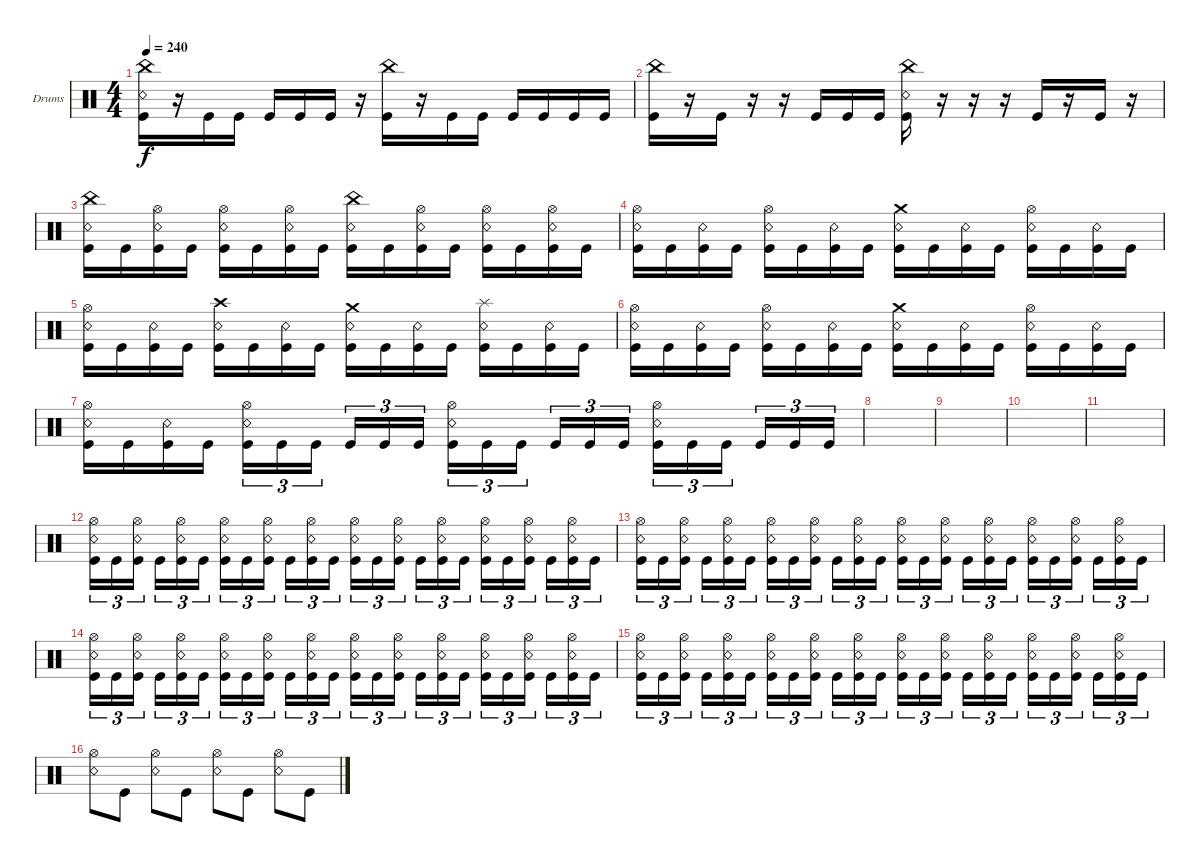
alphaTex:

\bracketExtendMode groupsimilarinstruments
\firstSystemTrackNameOrientation horizontal
\otherSystemsTrackNameOrientation horizontal
\track ("Drumkit" "Drums") {instrument percussion}
\staff {score}
\articulation defaults
\ts (4 4)
\tempo 240
\clef neutral
\ks c
("China (hit)" "Kick (hit)" "Snare (rim shot)").16{dy f} r.16 "Kick (hit)".16 "Kick (hit)".16 "Kick (hit)".16 "Kick (hit)".16 "Kick (hit)".16 r.16 ("China (hit)" "Kick (hit)").16 r.16 "Kick (hit)".16 "Kick (hit)".16 "Kick (hit)".16 "Kick (hit)".16 "Kick (hit)".16 "Kick (hit)".16 |
("China (hit)" "Kick (hit)").16 r.16 "Kick (hit)".16 r.16 r.16 "Kick (hit)".16 "Kick (hit)".16 "Kick (hit)".16 ("China (hit)" "Kick (hit)" "Snare (rim shot)").16 r.16 r.16 r.16 "Kick (hit)".16 r.16 "Kick (hit)".16 r.16 |
("China (hit)" "Kick (hit)" "Snare (rim shot)").16 "Kick (hit)".16 ("Kick (hit)" "Snare (rim shot)" "Hi-Hat (open)").16 "Kick (hit)".16 ("Kick (hit)" "Snare (rim shot)" "Hi-Hat (open)").16 "Kick (hit)".16 ("Kick (hit)" "Snare (rim shot)" "Hi-Hat (open)").16 "Kick (hit)".16 ("China (hit)" "Kick (hit)" "Snare (rim shot)").16 "Kick (hit)".16 ("Kick (hit)" "Snare (rim shot)" "Hi-Hat (open)").16 "Kick (hit)".16 ("Kick (hit)" "Snare (rim shot)" "Hi-Hat (open)").16 "Kick (hit)".16 ("Kick (hit)" "Snare (rim shot)" "Hi-Hat (open)").16 "Kick (hit)".16 |
("Snare (rim shot)" "Hi-Hat (open)" "Kick (hit)").16 "Kick (hit)".16 ("Snare (rim shot)" "Kick (hit)").16 "Kick (hit)".16 ("Snare (rim shot)" "Hi-Hat (open)" "Kick (hit)").16 "Kick (hit)".16 ("Snare (rim shot)" "Kick (hit)").16 "Kick (hit)".16 ("Snare (rim shot)" "Crash medium (hit)" "Kick (hit)").16 "Kick (hit)".16 ("Snare (rim shot)" "Kick (hit)").16 "Kick (hit)".16 ("Snare (rim shot)" "Hi-Hat (open)" "Kick (hit)").16 "Kick (hit)".16 ("Snare (rim shot)" "Kick (hit)").16 "Kick (hit)".16 |
("Snare (rim shot)" "Hi-Hat (open)" "Kick (hit)").16 "Kick (hit)".16 ("Snare (rim shot)" "Kick (hit)").16 "Kick (hit)".16 ("Snare (rim shot)" "Kick (hit)" "Crash high (hit)").16 "Kick (hit)".16 ("Snare (rim shot)" "Kick (hit)").16 "Kick (hit)".16 ("Snare (rim shot)" "Crash medium (hit)" "Kick (hit)").16 "Kick (hit)".16 ("Snare (rim shot)" "Kick (hit)").16 "Kick (hit)".16 ("Snare (rim shot)" "Kick (hit)" "Splash (hit)").16 "Kick (hit)".16 ("Snare (rim shot)" "Kick (hit)").16 "Kick (hit)".16 |
("Snare (rim shot)" "Hi-Hat (open)" "Kick (hit)").16 "Kick (hit)".16 ("Snare (rim shot)" "Kick (hit)").16 "Kick (hit)".16 ("Snare (rim shot)" "Hi-Hat (open)" "Kick (hit)").16 "Kick (hit)".16 ("Snare (rim shot)" "Kick (hit)").16 "Kick (hit)".16 ("Snare (rim shot)" "Crash medium (hit)" "Kick (hit)").16 "Kick (hit)".16 ("Snare (rim shot)" "Kick (hit)").16 "Kick (hit)".16 ("Snare (rim shot)" "Hi-Hat (open)" "Kick (hit)").16 "Kick (hit)".16 ("Snare (rim shot)" "Kick (hit)").16 "Kick (hit)".16 |
("Snare (rim shot)" "Hi-Hat (open)" "Kick (hit)").16 "Kick (hit)".16 ("Snare (rim shot)" "Kick (hit)").16 "Kick (hit)".16 ("Kick (hit)" "Hi-Hat (open)" "Snare (rim shot)").16{tu (3 2)} "Kick (hit)".16{tu (3 2)} "Kick (hit)".16{tu (3 2)} "Kick (hit)".16{tu (3 2)} "Kick (hit)".16{tu (3 2)} "Kick (hit)".16{tu (3 2)} ("Kick (hit)" "Hi-Hat (open)" "Snare (rim shot)").16{tu (3 2)} "Kick (hit)".16{tu (3 2)} "Kick (hit)".16{tu (3 2)} "Kick (hit)".16{tu (3 2)} "Kick (hit)".16{tu (3 2)} "Kick (hit)".16{tu (3 2)} ("Kick (hit)" "Hi-Hat (open)" "Snare (rim shot)").16{tu (3 2)} "Kick (hit)".16{tu (3 2)} "Kick (hit)".16{tu (3 2)} "Kick (hit)".16{tu (3 2)} "Kick (hit)".16{tu (3 2)} "Kick (hit)".16{tu (3 2)} |
|
|
|
|
("Snare (rim shot)" "Hi-Hat (open)" "Kick (hit)").16{tu (3 2)} "Kick (hit)".16{tu (3 2)} ("Snare (rim shot)" "Hi-Hat (open)" "Kick (hit)").16{tu (3 2)} "Kick (hit)".16{tu (3 2)} ("Snare (rim shot)" "Hi-Hat (open)" "Kick (hit)").16{tu (3 2)} "Kick (hit)".16{tu (3 2)} ("Snare (rim shot)" "Hi-Hat (open)" "Kick (hit)").16{tu (3 2)} "Kick (hit)".16{tu (3 2)} ("Snare (rim shot)" "Hi-Hat (open)" "Kick (hit)").16{tu (3 2)} "Kick (hit)".16{tu (3 2)} ("Snare (rim shot)" "Hi-Hat (open)" "Kick (hit)").16{tu (3 2)} "Kick (hit)".16{tu (3 2)} ("Snare (rim shot)" "Hi-Hat (open)" "Kick (hit)").16{tu (3 2)} "Kick (hit)".16{tu (3 2)} ("Snare (rim shot)" "Hi-Hat (open)" "Kick (hit)").16{tu (3 2)} "Kick (hit)".16{tu (3 2)} ("Snare (rim shot)" "Hi-Hat (open)" "Kick (hit)").16{tu (3 2)} "Kick (hit)".16{tu (3 2)} ("Snare (rim shot)" "Hi-Hat (open)" "Kick (hit)").16{tu (3 2)} "Kick (hit)".16{tu (3 2)} ("Snare (rim shot)" "Hi-Hat (open)" "Kick (hit)").16{tu (3 2)} "Kick (hit)".16{tu (3 2)} ("Snare (rim shot)" "Hi-Hat (open)" "Kick (hit)").16{tu (3 2)} "Kick (hit)".16{tu (3 2)} |
("Snare (rim shot)" "Hi-Hat (open)" "Kick (hit)").16{tu (3 2)} "Kick (hit)".16{tu (3 2)} ("Snare (rim shot)" "Hi-Hat (open)" "Kick (hit)").16{tu (3 2)} "Kick (hit)".16{tu (3 2)} ("Snare (rim shot)" "Hi-Hat (open)" "Kick (hit)").16{tu (3 2)} "Kick (hit)".16{tu (3 2)} ("Snare (rim shot)" "Hi-Hat (open)" "Kick (hit)").16{tu (3 2)} "Kick (hit)".16{tu (3 2)} ("Snare (rim shot)" "Hi-Hat (open)" "Kick (hit)").16{tu (3 2)} "Kick (hit)".16{tu (3 2)} ("Snare (rim shot)" "Hi-Hat (open)" "Kick (hit)").16{tu (3 2)} "Kick (hit)".16{tu (3 2)} ("Snare (rim shot)" "Hi-Hat (open)" "Kick (hit)").16{tu (3 2)} "Kick (hit)".16{tu (3 2)} ("Snare (rim shot)" "Hi-Hat (open)" "Kick (hit)").16{tu (3 2)} "Kick (hit)".16{tu (3 2)} ("Snare (rim shot)" "Hi-Hat (open)" "Kick (hit)").16{tu (3 2)} "Kick (hit)".16{tu (3 2)} ("Snare (rim shot)" "Hi-Hat (open)" "Kick (hit)").16{tu (3 2)} "Kick (hit)".16{tu (3 2)} ("Snare (rim shot)" "Hi-Hat (open)" "Kick (hit)").16{tu (3 2)} "Kick (hit)".16{tu (3 2)} ("Snare (rim shot)" "Hi-Hat (open)" "Kick (hit)").16{tu (3 2)} "Kick (hit)".16{tu (3 2)} |
("Snare (rim shot)" "Hi-Hat (open)" "Kick (hit)").16{tu (3 2)} "Kick (hit)".16{tu (3 2)} ("Snare (rim shot)" "Hi-Hat (open)" "Kick (hit)").16{tu (3 2)} "Kick (hit)".16{tu (3 2)} ("Snare (rim shot)" "Hi-Hat (open)" "Kick (hit)").16{tu (3 2)} "Kick (hit)".16{tu (3 2)} ("Snare (rim shot)" "Hi-Hat (open)" "Kick (hit)").16{tu (3 2)} "Kick (hit)".16{tu (3 2)} ("Snare (rim shot)" "Hi-Hat (open)" "Kick (hit)").16{tu (3 2)} "Kick (hit)".16{tu (3 2)} ("Snare (rim shot)" "Hi-Hat (open)" "Kick (hit)").16{tu (3 2)} "Kick (hit)".16{tu (3 2)} ("Snare (rim shot)" "Hi-Hat (open)" "Kick (hit)").16{tu (3 2)} "Kick (hit)".16{tu (3 2)} ("Snare (rim shot)" "Hi-Hat (open)" "Kick (hit)").16{tu (3 2)} "Kick (hit)".16{tu (3 2)} ("Snare (rim shot)" "Hi-Hat (open)" "Kick (hit)").16{tu (3 2)} "Kick (hit)".16{tu (3 2)} ("Snare (rim shot)" "Hi-Hat (open)" "Kick (hit)").16{tu (3 2)} "Kick (hit)".16{tu (3 2)} ("Snare (rim shot)" "Hi-Hat (open)" "Kick (hit)").16{tu (3 2)} "Kick (hit)".16{tu (3 2)} ("Snare (rim shot)" "Hi-Hat (open)" "Kick (hit)").16{tu (3 2)} "Kick (hit)".16{tu (3 2)} |
("Snare (rim shot)" "Hi-Hat (open)" "Kick (hit)").16{tu (3 2)} "Kick (hit)".16{tu (3 2)} ("Snare (rim shot)" "Hi-Hat (open)" "Kick (hit)").16{tu (3 2)} "Kick (hit)".16{tu (3 2)} ("Snare (rim shot)" "Hi-Hat (open)" "Kick (hit)").16{tu (3 2)} "Kick (hit)".16{tu (3 2)} ("Snare (rim shot)" "Hi-Hat (open)" "Kick (hit)").16{tu (3 2)} "Kick (hit)".16{tu (3 2)} ("Snare (rim shot)" "Hi-Hat (open)" "Kick (hit)").16{tu (3 2)} "Kick (hit)".16{tu (3 2)} ("Snare (rim shot)" "Hi-Hat (open)" "Kick (hit)").16{tu (3 2)} "Kick (hit)".16{tu (3 2)} ("Snare (rim shot)" "Hi-Hat (open)" "Kick (hit)").16{tu (3 2)} "Kick (hit)".16{tu (3 2)} ("Snare (rim shot)" "Hi-Hat (open)" "Kick (hit)").16{tu (3 2)} "Kick (hit)".16{tu (3 2)} ("Snare (rim shot)" "Hi-Hat (open)" "Kick (hit)").16{tu (3 2)} "Kick (hit)".16{tu (3 2)} ("Snare (rim shot)" "Hi-Hat (open)" "Kick (hit)").16{tu (3 2)} "Kick (hit)".16{tu (3 2)} ("Snare (rim shot)" "Hi-Hat (open)" "Kick (hit)").16{tu (3 2)} "Kick (hit)".16{tu (3 2)} ("Snare (rim shot)" "Hi-Hat (open)" "Kick (hit)").16{tu (3 2)} "Kick (hit)".16{tu (3 2)} |
("Snare (rim shot)" "Hi-Hat (open)").8 "Kick (hit)".8 ("Snare (rim shot)" "Hi-Hat (open)").8 "Kick (hit)".8 ("Snare (rim shot)" "Hi-Hat (open)").8 "Kick (hit)".8 ("Snare (rim shot)" "Hi-Hat (open)").8 "Kick (hit)".8
